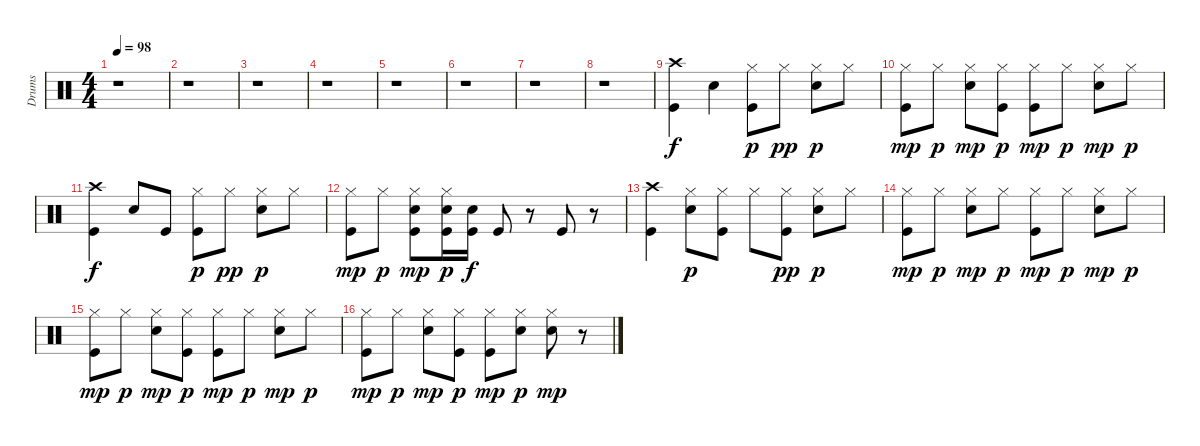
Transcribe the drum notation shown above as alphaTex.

\track ("Drums" "Drums") {instrument percussion}
\staff {score}
\articulation defaults
\ts (4 4)
\tempo 98
\clef neutral
\ks c
r.1{dy f} |
r.1 |
r.1 |
r.1 |
r.1 |
r.1 |
r.1 |
r.1 |
("Crash high (hit)" "Kick (hit)").4 "Snare (hit) 2".4 ("Kick (hit)" "Hi-Hat (closed)").8{dy p} "Hi-Hat (closed)".8{dy pp} ("Hi-Hat (closed)" "Snare (hit) 2").8{dy p} "Hi-Hat (closed)".8 |
("Kick (hit)" "Hi-Hat (closed)").8{dy mp} "Hi-Hat (closed)".8{dy p} ("Hi-Hat (closed)" "Snare (hit) 2").8{dy mp} ("Kick (hit)" "Hi-Hat (closed)").8{dy p} ("Hi-Hat (closed)" "Kick (hit)").8{dy mp} "Hi-Hat (closed)".8{dy p} ("Snare (hit) 2" "Hi-Hat (closed)").8{dy mp} "Hi-Hat (closed)".8{dy p} |
("Kick (hit)" "Crash high (hit)").4{dy f} "Snare (hit) 2".8 "Kick (hit)".8 ("Kick (hit)" "Hi-Hat (closed)").8{dy p} "Hi-Hat (closed)".8{dy pp} ("Hi-Hat (closed)" "Snare (hit) 2").8{dy p} "Hi-Hat (closed)".8 |
("Kick (hit)" "Hi-Hat (closed)").8{dy mp} "Hi-Hat (closed)".8{dy p} ("Snare (hit) 2" "Hi-Hat (closed)" "Kick (hit)").8{dy mp} ("Snare (hit) 2" "Hi-Hat (closed)" "Kick (hit)").16{dy p} ("Snare (hit) 2" "Kick (hit)").16{dy f} "Kick (hit)".8 r.8 "Kick (hit)".8 r.8 |
("Kick (hit)" "Crash high (hit)").4 ("Snare (hit) 2" "Hi-Hat (closed)").8{dy p} ("Kick (hit)" "Hi-Hat (closed)").8 "Hi-Hat (closed)".8 ("Kick (hit)" "Hi-Hat (closed)").8{dy pp} ("Snare (hit) 2" "Hi-Hat (closed)").8{dy p} "Hi-Hat (closed)".8 |
("Kick (hit)" "Hi-Hat (closed)").8{dy mp} "Hi-Hat (closed)".8{dy p} ("Snare (hit) 2" "Hi-Hat (closed)").8{dy mp} "Hi-Hat (closed)".8{dy p} ("Kick (hit)" "Hi-Hat (closed)").8{dy mp} "Hi-Hat (closed)".8{dy p} ("Snare (hit) 2" "Hi-Hat (closed)").8{dy mp} "Hi-Hat (closed)".8{dy p} |
("Kick (hit)" "Hi-Hat (closed)").8{dy mp} "Hi-Hat (closed)".8{dy p} ("Snare (hit) 2" "Hi-Hat (closed)").8{dy mp} ("Kick (hit)" "Hi-Hat (closed)").8{dy p} ("Kick (hit)" "Hi-Hat (closed)").8{dy mp} "Hi-Hat (closed)".8{dy p} ("Snare (hit) 2" "Hi-Hat (closed)").8{dy mp} "Hi-Hat (closed)".8{dy p} |
("Kick (hit)" "Hi-Hat (closed)").8{dy mp} "Hi-Hat (closed)".8{dy p} ("Snare (hit) 2" "Hi-Hat (closed)").8{dy mp} ("Kick (hit)" "Hi-Hat (closed)").8{dy p} ("Kick (hit)" "Hi-Hat (closed)").8{dy mp} ("Snare (hit) 2" "Hi-Hat (closed)").8{dy p} ("Snare (hit) 2" "Hi-Hat (closed)").8{dy mp} r.8
